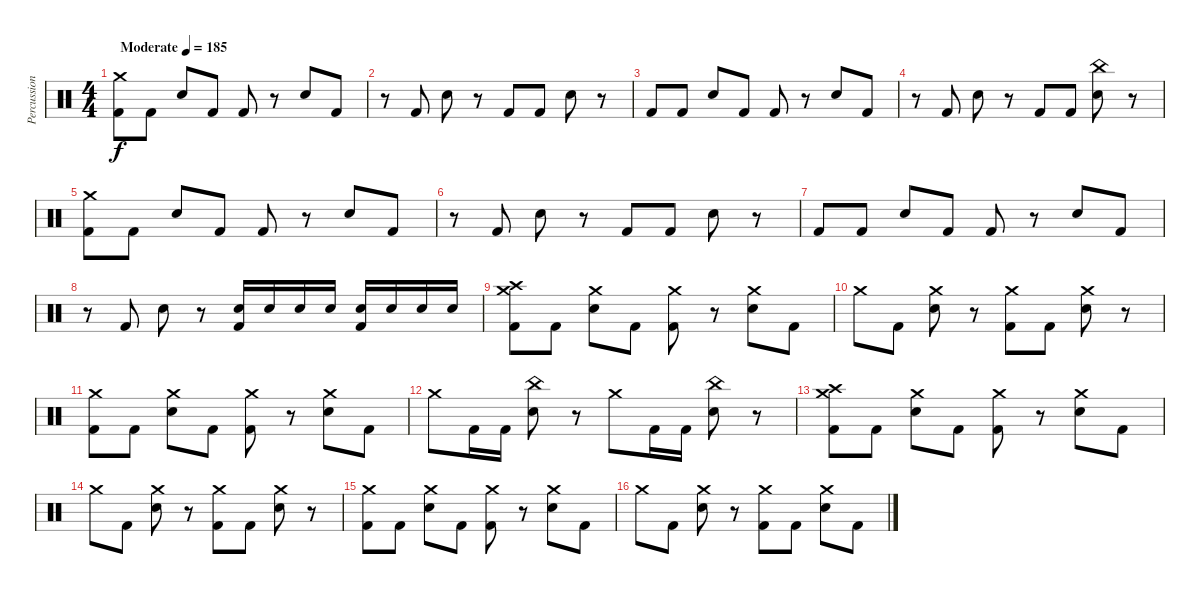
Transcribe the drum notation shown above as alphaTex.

\track ("Percussion" "Percussion") {instrument percussion}
\staff {score}
\articulation defaults
\ts (4 4)
\tempo (185 "Moderate")
\clef neutral
\ks c
("Crash medium (hit)" "Kick (hit) 2").8{dy f} "Kick (hit) 2".8 "Snare (hit) 2".8 "Kick (hit) 2".8 "Kick (hit) 2".8 r.8 "Snare (hit) 2".8 "Kick (hit) 2".8 |
r.8 "Kick (hit) 2".8 "Snare (hit) 2".8 r.8 "Kick (hit) 2".8 "Kick (hit) 2".8 "Snare (hit) 2".8 r.8 |
"Kick (hit) 2".8 "Kick (hit) 2".8 "Snare (hit) 2".8 "Kick (hit) 2".8 "Kick (hit) 2".8 r.8 "Snare (hit) 2".8 "Kick (hit) 2".8 |
r.8 "Kick (hit) 2".8 "Snare (hit) 2".8 r.8 "Kick (hit) 2".8 "Kick (hit) 2".8 ("China (hit)" "Snare (hit) 2").8 r.8 |
("Crash medium (hit)" "Kick (hit) 2").8 "Kick (hit) 2".8 "Snare (hit) 2".8 "Kick (hit) 2".8 "Kick (hit) 2".8 r.8 "Snare (hit) 2".8 "Kick (hit) 2".8 |
r.8 "Kick (hit) 2".8 "Snare (hit) 2".8 r.8 "Kick (hit) 2".8 "Kick (hit) 2".8 "Snare (hit) 2".8 r.8 |
"Kick (hit) 2".8 "Kick (hit) 2".8 "Snare (hit) 2".8 "Kick (hit) 2".8 "Kick (hit) 2".8 r.8 "Snare (hit) 2".8 "Kick (hit) 2".8 |
r.8 "Kick (hit) 2".8 "Snare (hit) 2".8 r.8 ("Snare (hit) 2" "Kick (hit) 2").16 "Snare (hit) 2".16 "Snare (hit) 2".16 "Snare (hit) 2".16 ("Snare (hit) 2" "Kick (hit) 2").16 "Snare (hit) 2".16 "Snare (hit) 2".16 "Snare (hit) 2".16 |
("Crash medium (hit)" "Crash high (hit)" "Kick (hit) 2").8 "Kick (hit) 2".8 ("Crash medium (hit)" "Snare (hit) 2").8 "Kick (hit) 2".8 ("Crash medium (hit)" "Kick (hit) 2").8 r.8 ("Crash medium (hit)" "Snare (hit) 2").8 "Kick (hit) 2".8 |
"Crash medium (hit)".8 "Kick (hit) 2".8 ("Crash medium (hit)" "Snare (hit) 2").8 r.8 ("Crash medium (hit)" "Kick (hit) 2").8 "Kick (hit) 2".8 ("Crash medium (hit)" "Snare (hit) 2").8 r.8 |
("Crash medium (hit)" "Kick (hit) 2").8 "Kick (hit) 2".8 ("Crash medium (hit)" "Snare (hit) 2").8 "Kick (hit) 2".8 ("Crash medium (hit)" "Kick (hit) 2").8 r.8 ("Crash medium (hit)" "Snare (hit) 2").8 "Kick (hit) 2".8 |
"Crash medium (hit)".8 "Kick (hit) 2".16 "Kick (hit) 2".16 ("China (hit)" "Snare (hit) 2").8 r.8 "Crash medium (hit)".8 "Kick (hit) 2".16 "Kick (hit) 2".16 ("China (hit)" "Snare (hit) 2").8 r.8 |
("Crash medium (hit)" "Crash high (hit)" "Kick (hit) 2").8 "Kick (hit) 2".8 ("Crash medium (hit)" "Snare (hit) 2").8 "Kick (hit) 2".8 ("Crash medium (hit)" "Kick (hit) 2").8 r.8 ("Crash medium (hit)" "Snare (hit) 2").8 "Kick (hit) 2".8 |
"Crash medium (hit)".8 "Kick (hit) 2".8 ("Crash medium (hit)" "Snare (hit) 2").8 r.8 ("Crash medium (hit)" "Kick (hit) 2").8 "Kick (hit) 2".8 ("Crash medium (hit)" "Snare (hit) 2").8 r.8 |
("Crash medium (hit)" "Kick (hit) 2").8 "Kick (hit) 2".8 ("Crash medium (hit)" "Snare (hit) 2").8 "Kick (hit) 2".8 ("Crash medium (hit)" "Kick (hit) 2").8 r.8 ("Crash medium (hit)" "Snare (hit) 2").8 "Kick (hit) 2".8 |
"Crash medium (hit)".8 "Kick (hit) 2".8 ("Crash medium (hit)" "Snare (hit) 2").8 r.8 ("Crash medium (hit)" "Kick (hit) 2").8 "Kick (hit) 2".8 ("Crash medium (hit)" "Snare (hit) 2").8 "Kick (hit) 2".8
